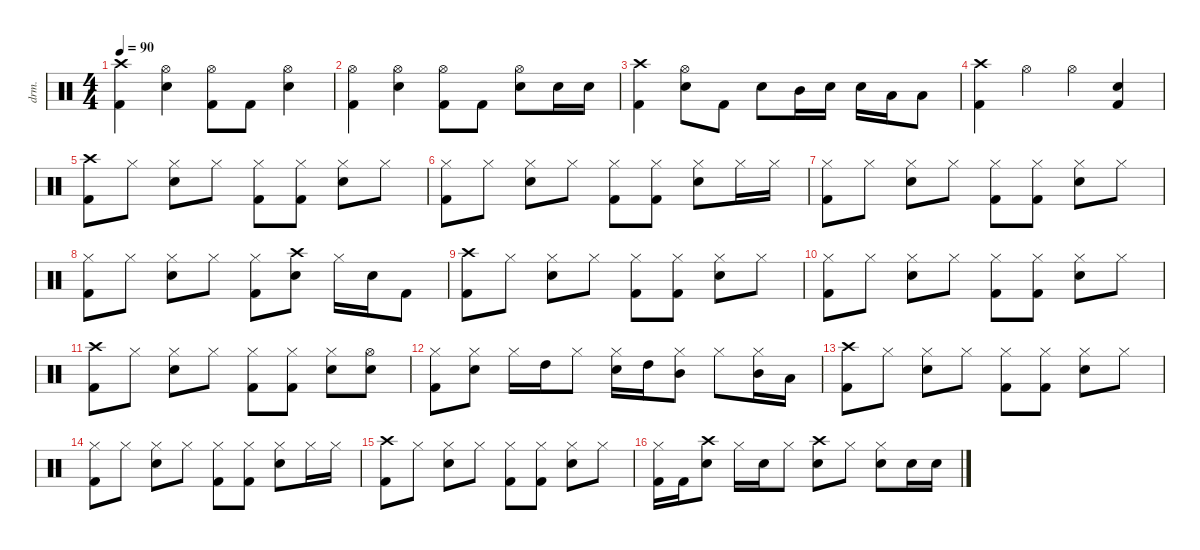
\defaultSystemsLayout 4
\hideDynamics
\bracketExtendMode nobrackets
\otherSystemsTrackNameOrientation horizontal
\track ("Drumkit" "drm.") {instrument percussion}
\staff {score}
\articulation defaults
\ts (4 4)
\tempo 90
\clef neutral
\ks c
("Crash high (hit)" "Kick (hit) 2").4{dy mf beam Down} ("Hi-Hat (open)" "Snare (hit) 2").4{beam Down} ("Hi-Hat (open)" "Kick (hit) 2").8{beam Down} "Kick (hit) 2".8{beam Down} ("Snare (hit) 2" "Hi-Hat (open)").4{beam Down} |
("Kick (hit) 2" "Hi-Hat (open)").4{beam Down} ("Hi-Hat (open)" "Snare (hit) 2").4{beam Down} ("Hi-Hat (open)" "Kick (hit) 2").8{beam Down} "Kick (hit) 2".8{beam Down} ("Snare (hit) 2" "Hi-Hat (open)").8{beam Down} "Snare (hit) 2".16{beam Down} "Snare (hit) 2".16{beam Down} |
("Kick (hit) 2" "Crash high (hit)").4{beam Down} ("Snare (hit) 2" "Hi-Hat (open)").8{beam Down} "Kick (hit) 2".8{beam Down} "Snare (hit) 2".8{beam Down} "Mid Tom (hit)".16{beam Down} "Snare (hit) 2".16{beam Down} "Snare (hit) 2".16{beam Down} "Low Tom (hit)".16{beam Down} "Low Tom (hit)".8{beam Down} |
("Crash high (hit)" "Kick (hit) 2").4{beam Down} "Hi-Hat (open)".4{beam Down} "Hi-Hat (open)".4{beam Down} ("Snare (hit) 2" "Kick (hit) 2").4{beam Up} |
("Crash high (hit)" "Kick (hit) 2").8{beam Down} "Hi-Hat (closed)".8{beam Down} ("Hi-Hat (closed)" "Snare (hit) 2").8{beam Down} "Hi-Hat (closed)".8{beam Down} ("Hi-Hat (closed)" "Kick (hit) 2").8{beam Down} ("Hi-Hat (closed)" "Kick (hit) 2").8{beam Down} ("Hi-Hat (closed)" "Snare (hit) 2").8{beam Down} "Hi-Hat (closed)".8{beam Down} |
("Hi-Hat (closed)" "Kick (hit) 2").8{beam Down} "Hi-Hat (closed)".8{beam Down} ("Hi-Hat (closed)" "Snare (hit) 2").8{beam Down} "Hi-Hat (closed)".8{beam Down} ("Hi-Hat (closed)" "Kick (hit) 2").8{beam Down} ("Hi-Hat (closed)" "Kick (hit) 2").8{beam Down} ("Hi-Hat (closed)" "Snare (hit) 2").8{beam Down} "Hi-Hat (closed)".16{beam Down} "Hi-Hat (closed)".16{beam Down} |
("Hi-Hat (closed)" "Kick (hit) 2").8{beam Down} "Hi-Hat (closed)".8{beam Down} ("Hi-Hat (closed)" "Snare (hit) 2").8{beam Down} "Hi-Hat (closed)".8{beam Down} ("Hi-Hat (closed)" "Kick (hit) 2").8{beam Down} ("Hi-Hat (closed)" "Kick (hit) 2").8{beam Down} ("Hi-Hat (closed)" "Snare (hit) 2").8{beam Down} "Hi-Hat (closed)".8{beam Down} |
("Hi-Hat (closed)" "Kick (hit) 2").8{beam Down} "Hi-Hat (closed)".8{beam Down} ("Hi-Hat (closed)" "Snare (hit) 2").8{beam Down} "Hi-Hat (closed)".8{beam Down} ("Hi-Hat (closed)" "Kick (hit) 2").8{beam Down} ("Snare (hit) 2" "Crash high (hit)").8{beam Down} "Hi-Hat (closed)".16{beam Down} "Snare (hit) 2".16{beam Down} "Kick (hit) 2".8{beam Down} |
("Crash high (hit)" "Kick (hit) 2").8{beam Down} "Hi-Hat (closed)".8{beam Down} ("Hi-Hat (closed)" "Snare (hit) 2").8{beam Down} "Hi-Hat (closed)".8{beam Down} ("Hi-Hat (closed)" "Kick (hit) 2").8{beam Down} ("Hi-Hat (closed)" "Kick (hit) 2").8{beam Down} ("Hi-Hat (closed)" "Snare (hit) 2").8{beam Down} "Hi-Hat (closed)".8{beam Down} |
("Hi-Hat (closed)" "Kick (hit) 2").8{beam Down} "Hi-Hat (closed)".8{beam Down} ("Hi-Hat (closed)" "Snare (hit) 2").8{beam Down} "Hi-Hat (closed)".8{beam Down} ("Hi-Hat (closed)" "Kick (hit) 2").8{beam Down} ("Hi-Hat (closed)" "Kick (hit) 2").8{beam Down} ("Hi-Hat (closed)" "Snare (hit) 2").8{beam Down} "Hi-Hat (closed)".8{beam Down} |
("Crash high (hit)" "Kick (hit) 2").8{beam Down} "Hi-Hat (closed)".8{beam Down} ("Hi-Hat (closed)" "Snare (hit) 2").8{beam Down} "Hi-Hat (closed)".8{beam Down} ("Hi-Hat (closed)" "Kick (hit) 2").8{beam Down} ("Hi-Hat (closed)" "Kick (hit) 2").8{beam Down} ("Hi-Hat (closed)" "Snare (hit) 2").8{beam Down} ("Hi-Hat (open)" "Snare (hit) 2").8{beam Down} |
("Hi-Hat (closed)" "Kick (hit) 2").8{beam Down} ("Hi-Hat (closed)" "Snare (hit) 2").8{beam Down} "Hi-Hat (closed)".16{beam Down} "High Tom (hit)".16{beam Down} "Hi-Hat (closed)".8{beam Down} ("Hi-Hat (closed)" "Snare (hit) 2").16{beam Down} "High Tom (hit)".16{beam Down} ("Hi-Hat (closed)" "Mid Tom (hit)").8{beam Down} "Hi-Hat (closed)".8{beam Down} ("Hi-Hat (closed)" "Mid Tom (hit)").16{beam Down} "Low Tom (hit)".16{beam Down} |
("Crash high (hit)" "Kick (hit) 2").8{beam Down} "Hi-Hat (closed)".8{beam Down} ("Hi-Hat (closed)" "Snare (hit) 2").8{beam Down} "Hi-Hat (closed)".8{beam Down} ("Hi-Hat (closed)" "Kick (hit) 2").8{beam Down} ("Hi-Hat (closed)" "Kick (hit) 2").8{beam Down} ("Hi-Hat (closed)" "Snare (hit) 2").8{beam Down} "Hi-Hat (closed)".8{beam Down} |
("Hi-Hat (closed)" "Kick (hit) 2").8{beam Down} "Hi-Hat (closed)".8{beam Down} ("Hi-Hat (closed)" "Snare (hit) 2").8{beam Down} "Hi-Hat (closed)".8{beam Down} ("Hi-Hat (closed)" "Kick (hit) 2").8{beam Down} ("Hi-Hat (closed)" "Kick (hit) 2").8{beam Down} ("Hi-Hat (closed)" "Snare (hit) 2").8{beam Down} "Hi-Hat (closed)".16{beam Down} "Hi-Hat (closed)".16{beam Down} |
("Crash high (hit)" "Kick (hit) 2").8{beam Down} "Hi-Hat (closed)".8{beam Down} ("Hi-Hat (closed)" "Snare (hit) 2").8{beam Down} "Hi-Hat (closed)".8{beam Down} ("Hi-Hat (closed)" "Kick (hit) 2").8{beam Down} ("Hi-Hat (closed)" "Kick (hit) 2").8{beam Down} ("Hi-Hat (closed)" "Snare (hit) 2").8{beam Down} "Hi-Hat (closed)".8{beam Down} |
("Hi-Hat (closed)" "Kick (hit) 2").16{beam Down} "Kick (hit) 2".16{beam Down} ("Snare (hit) 2" "Crash high (hit)").8{beam Down} "Hi-Hat (closed)".16{beam Down} "Snare (hit) 2".16{beam Down} "Hi-Hat (closed)".8{beam Down} ("Crash high (hit)" "Snare (hit) 2").8{beam Down} "Hi-Hat (closed)".8{beam Down} ("Hi-Hat (closed)" "Snare (hit) 2").8{beam Down} "Snare (hit) 2".16{beam Down} "Snare (hit) 2".16{beam Down}
